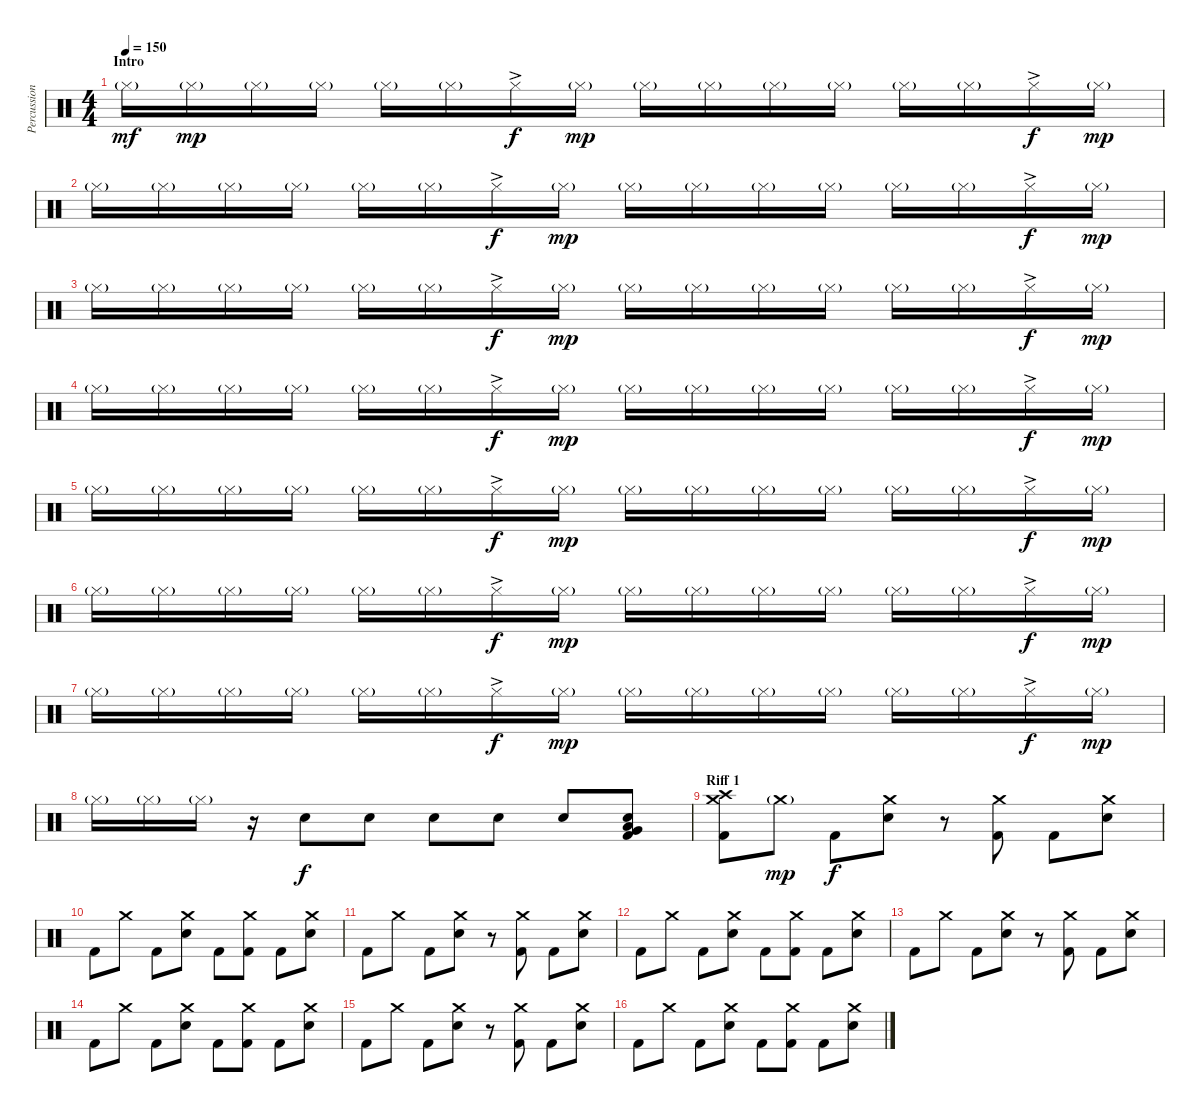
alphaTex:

\track ("Percussion" "Percussion") {instrument percussion}
\staff {score}
\articulation defaults
\ts (4 4)
\section ("" "Intro")
\tempo 150
\clef neutral
\ks c "Hi-Hat (closed)"{g}.16{dy mf} "Hi-Hat (closed)"{g}.16{dy mp} "Hi-Hat (closed)"{g}.16 "Hi-Hat (closed)"{g}.16 "Hi-Hat (closed)"{g}.16 "Hi-Hat (closed)"{g}.16 "Hi-Hat (closed)"{ac}.16{dy f} "Hi-Hat (closed)"{g}.16{dy mp} "Hi-Hat (closed)"{g}.16 "Hi-Hat (closed)"{g}.16 "Hi-Hat (closed)"{g}.16 "Hi-Hat (closed)"{g}.16 "Hi-Hat (closed)"{g}.16 "Hi-Hat (closed)"{g}.16 "Hi-Hat (closed)"{ac}.16{dy f} "Hi-Hat (closed)"{g}.16{dy mp}
|
"Hi-Hat (closed)"{g}.16 "Hi-Hat (closed)"{g}.16 "Hi-Hat (closed)"{g}.16 "Hi-Hat (closed)"{g}.16 "Hi-Hat (closed)"{g}.16 "Hi-Hat (closed)"{g}.16 "Hi-Hat (closed)"{ac}.16{dy f} "Hi-Hat (closed)"{g}.16{dy mp} "Hi-Hat (closed)"{g}.16 "Hi-Hat (closed)"{g}.16 "Hi-Hat (closed)"{g}.16 "Hi-Hat (closed)"{g}.16 "Hi-Hat (closed)"{g}.16 "Hi-Hat (closed)"{g}.16 "Hi-Hat (closed)"{ac}.16{dy f} "Hi-Hat (closed)"{g}.16{dy mp} |
"Hi-Hat (closed)"{g}.16 "Hi-Hat (closed)"{g}.16 "Hi-Hat (closed)"{g}.16 "Hi-Hat (closed)"{g}.16 "Hi-Hat (closed)"{g}.16 "Hi-Hat (closed)"{g}.16 "Hi-Hat (closed)"{ac}.16{dy f} "Hi-Hat (closed)"{g}.16{dy mp} "Hi-Hat (closed)"{g}.16 "Hi-Hat (closed)"{g}.16 "Hi-Hat (closed)"{g}.16 "Hi-Hat (closed)"{g}.16 "Hi-Hat (closed)"{g}.16 "Hi-Hat (closed)"{g}.16 "Hi-Hat (closed)"{ac}.16{dy f} "Hi-Hat (closed)"{g}.16{dy mp} |
"Hi-Hat (closed)"{g}.16 "Hi-Hat (closed)"{g}.16 "Hi-Hat (closed)"{g}.16 "Hi-Hat (closed)"{g}.16 "Hi-Hat (closed)"{g}.16 "Hi-Hat (closed)"{g}.16 "Hi-Hat (closed)"{ac}.16{dy f} "Hi-Hat (closed)"{g}.16{dy mp} "Hi-Hat (closed)"{g}.16 "Hi-Hat (closed)"{g}.16 "Hi-Hat (closed)"{g}.16 "Hi-Hat (closed)"{g}.16 "Hi-Hat (closed)"{g}.16 "Hi-Hat (closed)"{g}.16 "Hi-Hat (closed)"{ac}.16{dy f} "Hi-Hat (closed)"{g}.16{dy mp} |
"Hi-Hat (closed)"{g}.16 "Hi-Hat (closed)"{g}.16 "Hi-Hat (closed)"{g}.16 "Hi-Hat (closed)"{g}.16 "Hi-Hat (closed)"{g}.16 "Hi-Hat (closed)"{g}.16 "Hi-Hat (closed)"{ac}.16{dy f} "Hi-Hat (closed)"{g}.16{dy mp} "Hi-Hat (closed)"{g}.16 "Hi-Hat (closed)"{g}.16 "Hi-Hat (closed)"{g}.16 "Hi-Hat (closed)"{g}.16 "Hi-Hat (closed)"{g}.16 "Hi-Hat (closed)"{g}.16 "Hi-Hat (closed)"{ac}.16{dy f} "Hi-Hat (closed)"{g}.16{dy mp} |
"Hi-Hat (closed)"{g}.16 "Hi-Hat (closed)"{g}.16 "Hi-Hat (closed)"{g}.16 "Hi-Hat (closed)"{g}.16 "Hi-Hat (closed)"{g}.16 "Hi-Hat (closed)"{g}.16 "Hi-Hat (closed)"{ac}.16{dy f} "Hi-Hat (closed)"{g}.16{dy mp} "Hi-Hat (closed)"{g}.16 "Hi-Hat (closed)"{g}.16 "Hi-Hat (closed)"{g}.16 "Hi-Hat (closed)"{g}.16 "Hi-Hat (closed)"{g}.16 "Hi-Hat (closed)"{g}.16 "Hi-Hat (closed)"{ac}.16{dy f} "Hi-Hat (closed)"{g}.16{dy mp} |
"Hi-Hat (closed)"{g}.16 "Hi-Hat (closed)"{g}.16 "Hi-Hat (closed)"{g}.16 "Hi-Hat (closed)"{g}.16 "Hi-Hat (closed)"{g}.16 "Hi-Hat (closed)"{g}.16 "Hi-Hat (closed)"{ac}.16{dy f} "Hi-Hat (closed)"{g}.16{dy mp} "Hi-Hat (closed)"{g}.16 "Hi-Hat (closed)"{g}.16 "Hi-Hat (closed)"{g}.16 "Hi-Hat (closed)"{g}.16 "Hi-Hat (closed)"{g}.16 "Hi-Hat (closed)"{g}.16 "Hi-Hat (closed)"{ac}.16{dy f} "Hi-Hat (closed)"{g}.16{dy mp} |
"Hi-Hat (closed)"{g}.16 "Hi-Hat (closed)"{g}.16 "Hi-Hat (closed)"{g}.16 r.16 "Electric Snare (hit)".8{dy f} "Electric Snare (hit)".8 "Electric Snare (hit)".8 "Electric Snare (hit)".8 "Electric Snare (hit)".8 ("Electric Snare (hit)" "Very Low Tom (hit)" "Low Floor Tom (hit)" "Kick (hit) 2").8 |
\section ("" "Riff 1")
("Crash medium (hit)" "Crash high (hit)" "Kick (hit) 2").8 "Crash medium (hit)"{g}.8{dy mp} "Kick (hit) 2".8{dy f} ("Crash medium (hit)" "Electric Snare (hit)").8 r.8 ("Crash medium (hit)" "Kick (hit) 2").8 "Kick (hit) 2".8 ("Crash medium (hit)" "Electric Snare (hit)").8 |
"Kick (hit) 2".8 "Crash medium (hit)".8 "Kick (hit) 2".8 ("Crash medium (hit)" "Electric Snare (hit)").8 "Kick (hit) 2".8 ("Crash medium (hit)" "Kick (hit) 2").8 "Kick (hit) 2".8 ("Crash medium (hit)" "Electric Snare (hit)").8 |
"Kick (hit) 2".8 "Crash medium (hit)".8 "Kick (hit) 2".8 ("Crash medium (hit)" "Electric Snare (hit)").8 r.8 ("Crash medium (hit)" "Kick (hit) 2").8 "Kick (hit) 2".8 ("Crash medium (hit)" "Electric Snare (hit)").8 |
"Kick (hit) 2".8 "Crash medium (hit)".8 "Kick (hit) 2".8 ("Crash medium (hit)" "Electric Snare (hit)").8 "Kick (hit) 2".8 ("Crash medium (hit)" "Kick (hit) 2").8 "Kick (hit) 2".8 ("Crash medium (hit)" "Electric Snare (hit)").8 |
"Kick (hit) 2".8 "Crash medium (hit)".8 "Kick (hit) 2".8 ("Crash medium (hit)" "Electric Snare (hit)").8 r.8 ("Crash medium (hit)" "Kick (hit) 2").8 "Kick (hit) 2".8 ("Crash medium (hit)" "Electric Snare (hit)").8 |
"Kick (hit) 2".8 "Crash medium (hit)".8 "Kick (hit) 2".8 ("Crash medium (hit)" "Electric Snare (hit)").8 "Kick (hit) 2".8 ("Crash medium (hit)" "Kick (hit) 2").8 "Kick (hit) 2".8 ("Crash medium (hit)" "Electric Snare (hit)").8 |
"Kick (hit) 2".8 "Crash medium (hit)".8 "Kick (hit) 2".8 ("Crash medium (hit)" "Electric Snare (hit)").8 r.8 ("Crash medium (hit)" "Kick (hit) 2").8 "Kick (hit) 2".8 ("Crash medium (hit)" "Electric Snare (hit)").8 |
"Kick (hit) 2".8 "Crash medium (hit)".8 "Kick (hit) 2".8 ("Crash medium (hit)" "Electric Snare (hit)").8 "Kick (hit) 2".8 ("Crash medium (hit)" "Kick (hit) 2").8 "Kick (hit) 2".8 ("Crash medium (hit)" "Electric Snare (hit)").8
